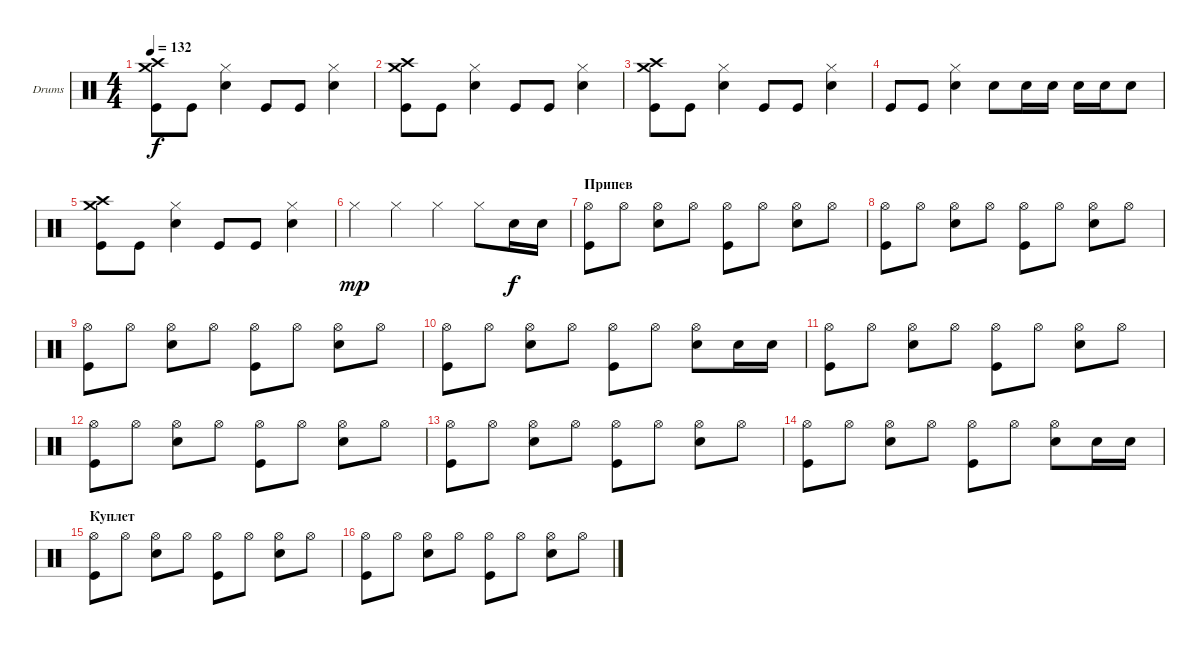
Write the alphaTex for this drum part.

\bracketExtendMode groupsimilarinstruments
\firstSystemTrackNameOrientation horizontal
\otherSystemsTrackNameOrientation horizontal
\track ("Александр Львов" "Drums") {instrument percussion}
\staff {score}
\articulation defaults
\ts (4 4)
\tempo 132
\clef neutral
\ks c
("Kick (hit)" "Crash medium (hit)" "Crash high (hit)").8{dy f} "Kick (hit)".8 ("Snare (hit) 2" "Hi-Hat (closed)").4 "Kick (hit)".8 "Kick (hit)".8 ("Snare (hit) 2" "Hi-Hat (closed)").4 |
("Kick (hit)" "Crash medium (hit)" "Crash high (hit)").8 "Kick (hit)".8 ("Snare (hit) 2" "Hi-Hat (closed)").4 "Kick (hit)".8 "Kick (hit)".8 ("Snare (hit) 2" "Hi-Hat (closed)").4 |
("Kick (hit)" "Crash medium (hit)" "Crash high (hit)").8 "Kick (hit)".8 ("Snare (hit) 2" "Hi-Hat (closed)").4 "Kick (hit)".8 "Kick (hit)".8 ("Snare (hit) 2" "Hi-Hat (closed)").4 |
"Kick (hit)".8 "Kick (hit)".8 ("Snare (hit) 2" "Hi-Hat (closed)").4 "Snare (hit) 2".8 "Snare (hit) 2".16 "Snare (hit) 2".16 "Snare (hit) 2".16 "Snare (hit) 2".16 "Snare (hit) 2".8 |
("Kick (hit)" "Crash medium (hit)" "Crash high (hit)").8 "Kick (hit)".8 ("Snare (hit) 2" "Hi-Hat (closed)").4 "Kick (hit)".8 "Kick (hit)".8 ("Snare (hit) 2" "Hi-Hat (closed)").4 |
"Hi-Hat (closed)".4{dy mp} "Hi-Hat (closed)".4 "Hi-Hat (closed)".4 "Hi-Hat (closed)".8 "Snare (hit) 2".16{dy f} "Snare (hit) 2".16 |
\section ("" "Припев ")
("Hi-Hat (open)" "Kick (hit)").8 "Hi-Hat (open)".8 ("Hi-Hat (open)" "Snare (hit) 2").8 "Hi-Hat (open)".8 ("Hi-Hat (open)" "Kick (hit)").8 "Hi-Hat (open)".8 ("Hi-Hat (open)" "Snare (hit) 2").8 "Hi-Hat (open)".8 |
("Hi-Hat (open)" "Kick (hit)").8 "Hi-Hat (open)".8 ("Hi-Hat (open)" "Snare (hit) 2").8 "Hi-Hat (open)".8 ("Hi-Hat (open)" "Kick (hit)").8 "Hi-Hat (open)".8 ("Hi-Hat (open)" "Snare (hit) 2").8 "Hi-Hat (open)".8 |
("Hi-Hat (open)" "Kick (hit)").8 "Hi-Hat (open)".8 ("Hi-Hat (open)" "Snare (hit) 2").8 "Hi-Hat (open)".8 ("Hi-Hat (open)" "Kick (hit)").8 "Hi-Hat (open)".8 ("Hi-Hat (open)" "Snare (hit) 2").8 "Hi-Hat (open)".8 |
("Hi-Hat (open)" "Kick (hit)").8 "Hi-Hat (open)".8 ("Hi-Hat (open)" "Snare (hit) 2").8 "Hi-Hat (open)".8 ("Hi-Hat (open)" "Kick (hit)").8 "Hi-Hat (open)".8 ("Hi-Hat (open)" "Snare (hit) 2").8 "Snare (hit) 2".16 "Snare (hit) 2".16 |
("Hi-Hat (open)" "Kick (hit)").8 "Hi-Hat (open)".8 ("Hi-Hat (open)" "Snare (hit) 2").8 "Hi-Hat (open)".8 ("Hi-Hat (open)" "Kick (hit)").8 "Hi-Hat (open)".8 ("Hi-Hat (open)" "Snare (hit) 2").8 "Hi-Hat (open)".8 |
("Hi-Hat (open)" "Kick (hit)").8 "Hi-Hat (open)".8 ("Hi-Hat (open)" "Snare (hit) 2").8 "Hi-Hat (open)".8 ("Hi-Hat (open)" "Kick (hit)").8 "Hi-Hat (open)".8 ("Hi-Hat (open)" "Snare (hit) 2").8 "Hi-Hat (open)".8 |
("Hi-Hat (open)" "Kick (hit)").8 "Hi-Hat (open)".8 ("Hi-Hat (open)" "Snare (hit) 2").8 "Hi-Hat (open)".8 ("Hi-Hat (open)" "Kick (hit)").8 "Hi-Hat (open)".8 ("Hi-Hat (open)" "Snare (hit) 2").8 "Hi-Hat (open)".8 |
("Hi-Hat (open)" "Kick (hit)").8 "Hi-Hat (open)".8 ("Hi-Hat (open)" "Snare (hit) 2").8 "Hi-Hat (open)".8 ("Hi-Hat (open)" "Kick (hit)").8 "Hi-Hat (open)".8 ("Hi-Hat (open)" "Snare (hit) 2").8 "Snare (hit) 2".16 "Snare (hit) 2".16 |
\section ("" "Куплет")
("Hi-Hat (open)" "Kick (hit)").8 "Hi-Hat (open)".8 ("Hi-Hat (open)" "Snare (hit) 2").8 "Hi-Hat (open)".8 ("Hi-Hat (open)" "Kick (hit)").8 "Hi-Hat (open)".8 ("Hi-Hat (open)" "Snare (hit) 2").8 "Hi-Hat (open)".8 |
("Hi-Hat (open)" "Kick (hit)").8 "Hi-Hat (open)".8 ("Hi-Hat (open)" "Snare (hit) 2").8 "Hi-Hat (open)".8 ("Hi-Hat (open)" "Kick (hit)").8 "Hi-Hat (open)".8 ("Hi-Hat (open)" "Snare (hit) 2").8 "Hi-Hat (open)".8
